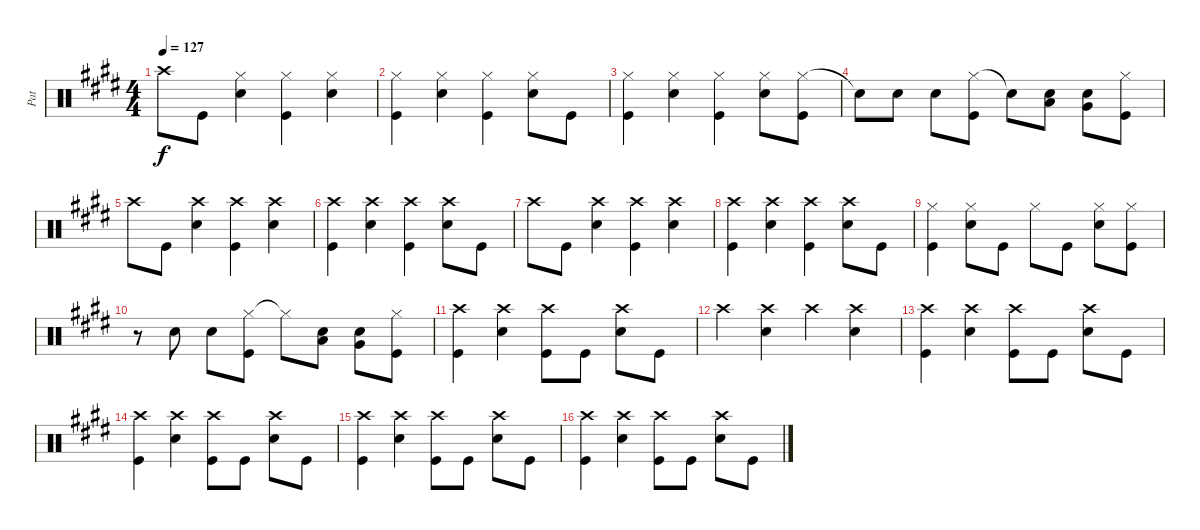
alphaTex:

\track ("Pat" "Pat") {instrument percussion}
\staff {score}
\articulation defaults
\ts (4 4)
\tempo 127
\clef neutral
\ks e "Crash high (hit)".8{dy f} "Kick (hit)".8
("Hi-Hat (closed)" "Snare (hit) 2").4 ("Hi-Hat (closed)" "Kick (hit)").4 ("Hi-Hat (closed)" "Snare (hit) 2").4 |
("Hi-Hat (closed)" "Kick (hit)").4 ("Hi-Hat (closed)" "Snare (hit) 2").4 ("Hi-Hat (closed)" "Kick (hit)").4 ("Hi-Hat (closed)" "Snare (hit) 2").8 "Kick (hit)".8 |
("Hi-Hat (closed)" "Kick (hit)").4 ("Hi-Hat (closed)" "Snare (hit) 2").4 ("Hi-Hat (closed)" "Kick (hit)").4 ("Hi-Hat (closed)" "Snare (hit) 2").8 ("Hi-Hat (closed)" "Kick (hit)").8 |
"Snare (hit)"{t}.8 "Snare (hit) 2".8 "Snare (hit) 2".8 ("Hi-Hat (closed)" "Kick (hit)").8 "Snare (hit)"{t}.8 ("Snare (hit) 2" "Low Tom (hit)").8 ("Very Low Tom (hit)" "Snare (hit) 2").8 ("Hi-Hat (closed)" "Kick (hit)").8 |
"Crash high (hit)".8 "Kick (hit)".8 ("Crash high (hit)" "Snare (hit) 2").4 ("Crash high (hit)" "Kick (hit)").4 ("Crash high (hit)" "Snare (hit) 2").4 |
("Crash high (hit)" "Kick (hit)").4 ("Crash high (hit)" "Snare (hit) 2").4 ("Crash high (hit)" "Kick (hit)").4 ("Crash high (hit)" "Snare (hit) 2").8 "Kick (hit)".8 |
"Crash high (hit)".8 "Kick (hit)".8 ("Crash high (hit)" "Snare (hit) 2").4 ("Crash high (hit)" "Kick (hit)").4 ("Snare (hit) 2" "Crash high (hit)").4 |
("Crash high (hit)" "Kick (hit)").4 ("Crash high (hit)" "Snare (hit) 2").4 ("Crash high (hit)" "Kick (hit)").4 ("Crash high (hit)" "Snare (hit) 2").8 "Kick (hit)".8 |
("Hi-Hat (closed)" "Kick (hit)").4 ("Hi-Hat (closed)" "Snare (hit) 2").8 "Kick (hit)".8 "Hi-Hat (closed)".8 "Kick (hit)".8 ("Hi-Hat (closed)" "Snare (hit) 2").8 ("Hi-Hat (closed)" "Kick (hit)").8 |
r.8 "Snare (hit) 2".8 "Snare (hit) 2".8 ("Hi-Hat (closed)" "Kick (hit)").8 "Hi-Hat (closed)"{t}.8 ("Snare (hit) 2" "Low Tom (hit)").8 ("Snare (hit) 2" "Very Low Tom (hit)").8 ("Hi-Hat (closed)" "Kick (hit)").8 |
("Crash high (hit)" "Kick (hit)").4 ("Crash high (hit)" "Snare (hit) 2").4 ("Crash high (hit)" "Kick (hit)").8 "Kick (hit)".8 ("Crash high (hit)" "Snare (hit) 2").8 "Kick (hit)".8 |
"Crash high (hit)".4 ("Crash high (hit)" "Snare (hit) 2").4 "Crash high (hit)".4 ("Crash high (hit)" "Snare (hit) 2").4 |
("Crash high (hit)" "Kick (hit)").4 ("Crash high (hit)" "Snare (hit) 2").4 ("Crash high (hit)" "Kick (hit)").8 "Kick (hit)".8 ("Crash high (hit)" "Snare (hit) 2").8 "Kick (hit)".8 |
("Crash high (hit)" "Kick (hit)").4 ("Crash high (hit)" "Snare (hit) 2").4 ("Crash high (hit)" "Kick (hit)").8 "Kick (hit)".8 ("Crash high (hit)" "Snare (hit) 2").8 "Kick (hit)".8 |
("Crash high (hit)" "Kick (hit)").4 ("Snare (hit) 2" "Crash high (hit)").4 ("Crash high (hit)" "Kick (hit)").8 "Kick (hit)".8 ("Crash high (hit)" "Snare (hit) 2").8 "Kick (hit)".8 |
("Crash high (hit)" "Kick (hit)").4 ("Crash high (hit)" "Snare (hit) 2").4 ("Crash high (hit)" "Kick (hit)").8 "Kick (hit)".8 ("Crash high (hit)" "Snare (hit) 2").8 "Kick (hit)".8
